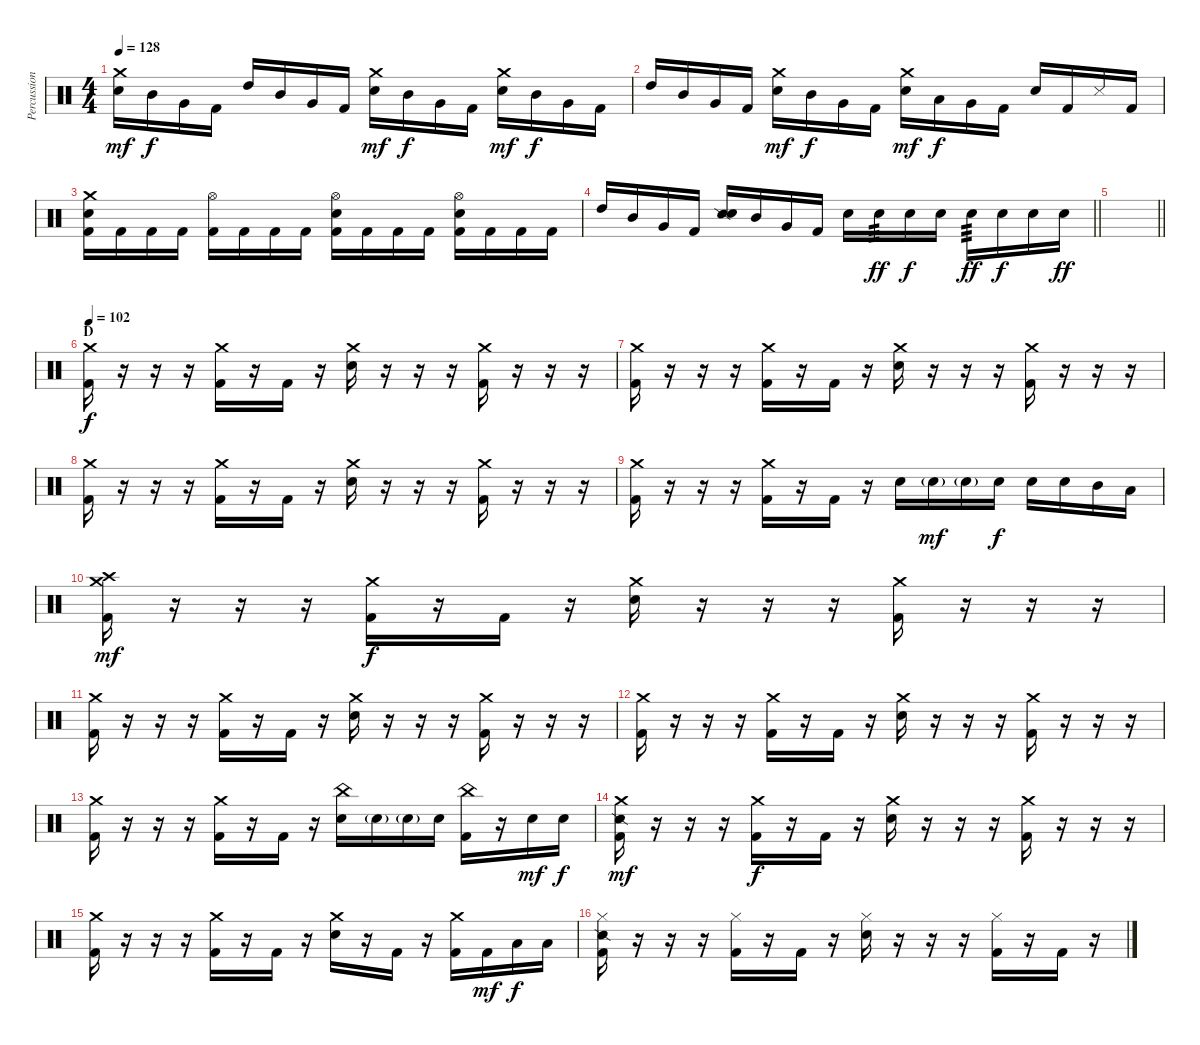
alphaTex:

\track ("Percussion" "Percussion") {instrument percussion}
\staff {score}
\articulation defaults
\ts (4 4)
\tempo 128
\clef neutral
\ks c
("Crash medium (hit)" "Snare (hit) 2").16{dy mf} "Mid Tom (hit)".16{dy f} "Very Low Tom (hit)".16 "Kick (hit) 2".16 "High Tom (hit)".16 "Mid Tom (hit)".16 "Very Low Tom (hit)".16 "Kick (hit) 2".16 ("Crash medium (hit)" "Snare (hit) 2").16{dy mf} "Mid Tom (hit)".16{dy f} "Very Low Tom (hit)".16 "Kick (hit) 2".16 ("Crash medium (hit)" "Snare (hit) 2").16{dy mf} "Mid Tom (hit)".16{dy f} "Very Low Tom (hit)".16 "Kick (hit) 2".16 |
"High Tom (hit)".16 "Mid Tom (hit)".16 "Very Low Tom (hit)".16 "Kick (hit) 2".16 ("Crash medium (hit)" "Snare (hit) 2").16{dy mf} "Mid Tom (hit)".16{dy f} "Very Low Tom (hit)".16 "Kick (hit) 2".16 ("Crash medium (hit)" "Snare (hit) 2").16{dy mf} "Low Tom (hit)".16{dy f} "Very Low Tom (hit)".16 "Kick (hit) 2".16 "Snare (hit) 2".16 "Kick (hit) 2".16 "Metronome (hit)".16 "Kick (hit) 2".16 |
("Crash medium (hit)" "Snare (hit) 2" "Kick (hit) 2").16 "Kick (hit) 2".16 "Kick (hit) 2".16 "Kick (hit) 2".16 ("Hi-Hat (open)" "Kick (hit) 2").16 "Kick (hit) 2".16 "Kick (hit) 2".16 "Kick (hit) 2".16 ("Hi-Hat (open)" "Snare (hit) 2" "Kick (hit) 2").16 "Kick (hit) 2".16 "Kick (hit) 2".16 "Kick (hit) 2".16 ("Hi-Hat (open)" "Snare (hit) 2" "Kick (hit) 2").16 "Kick (hit) 2".16 "Kick (hit) 2".16 "Kick (hit) 2".16 |
\barLineRight lightlight "High Tom (hit)".16 "Mid Tom (hit)".16 "Very Low Tom (hit)".16 "Kick (hit) 2".16
("Snare (side stick) 2" "Snare (hit) 2").16 "Mid Tom (hit)".16 "Very Low Tom (hit)".16 "Kick (hit) 2".16 "Snare (hit) 2".16 "Snare (hit) 2".16{tp 3 dy ff} "Snare (hit) 2".16{dy f} "Snare (hit) 2".16 "Snare (hit) 2".16{tp 3 dy ff} "Snare (hit) 2".16{dy f} "Snare (hit) 2".16 "Snare (hit) 2".16{dy ff} |
\barLineRight lightlight
|
\section ("" "D")
\tempo 102
("Crash medium (hit)" "Kick (hit) 2").16{dy f} r.16 r.16 r.16 ("Crash medium (hit)" "Kick (hit) 2").16 r.16 "Kick (hit) 2".16 r.16 ("Crash medium (hit)" "Snare (hit) 2").16 r.16 r.16 r.16 ("Crash medium (hit)" "Kick (hit) 2").16 r.16 r.16 r.16 |
("Crash medium (hit)" "Kick (hit) 2").16 r.16 r.16 r.16 ("Crash medium (hit)" "Kick (hit) 2").16 r.16 "Kick (hit) 2".16 r.16 ("Crash medium (hit)" "Snare (hit) 2").16 r.16 r.16 r.16 ("Crash medium (hit)" "Kick (hit) 2").16 r.16 r.16 r.16 |
("Crash medium (hit)" "Kick (hit) 2").16 r.16 r.16 r.16 ("Crash medium (hit)" "Kick (hit) 2").16 r.16 "Kick (hit) 2".16 r.16 ("Crash medium (hit)" "Snare (hit) 2").16 r.16 r.16 r.16 ("Crash medium (hit)" "Kick (hit) 2").16 r.16 r.16 r.16 |
("Crash medium (hit)" "Kick (hit) 2").16 r.16 r.16 r.16 ("Crash medium (hit)" "Kick (hit) 2").16 r.16 "Kick (hit) 2".16 r.16 "Snare (hit) 2".16 "Snare (hit) 2"{g}.16{dy mf} "Snare (hit) 2"{g}.16 "Snare (hit) 2".16{dy f} "Snare (hit) 2".16 "Snare (hit) 2".16 "Mid Tom (hit)".16 "Low Tom (hit)".16 |
("Crash medium (hit)" "Crash high (hit)" "Kick (hit) 2").16{dy mf} r.16 r.16 r.16 ("Crash medium (hit)" "Kick (hit) 2").16{dy f} r.16 "Kick (hit) 2".16 r.16 ("Crash medium (hit)" "Snare (hit) 2").16 r.16 r.16 r.16 ("Crash medium (hit)" "Kick (hit) 2").16 r.16 r.16 r.16 |
("Crash medium (hit)" "Kick (hit) 2").16 r.16 r.16 r.16 ("Crash medium (hit)" "Kick (hit) 2").16 r.16 "Kick (hit) 2".16 r.16 ("Crash medium (hit)" "Snare (hit) 2").16 r.16 r.16 r.16 ("Crash medium (hit)" "Kick (hit) 2").16 r.16 r.16 r.16 |
("Crash medium (hit)" "Kick (hit) 2").16 r.16 r.16 r.16 ("Crash medium (hit)" "Kick (hit) 2").16 r.16 "Kick (hit) 2".16 r.16 ("Crash medium (hit)" "Snare (hit) 2").16 r.16 r.16 r.16 ("Crash medium (hit)" "Kick (hit) 2").16 r.16 r.16 r.16 |
("Crash medium (hit)" "Kick (hit) 2").16 r.16 r.16 r.16 ("Crash medium (hit)" "Kick (hit) 2").16 r.16 "Kick (hit) 2".16 r.16 ("China (hit)" "Snare (hit) 2").16 "Snare (hit) 2"{g}.16 "Snare (hit) 2"{g}.16 "Snare (hit) 2".16 ("China (hit)" "Kick (hit) 2").16 r.16 "Snare (hit) 2".16{dy mf} "Snare (hit) 2".16{dy f} |
("Crash medium (hit)" "Snare (side stick) 2" "Kick (hit) 2").16{dy mf} r.16 r.16 r.16 ("Crash medium (hit)" "Kick (hit) 2").16{dy f} r.16 "Kick (hit) 2".16 r.16 ("Crash medium (hit)" "Snare (hit) 2").16 r.16 r.16 r.16 ("Crash medium (hit)" "Kick (hit) 2").16 r.16 r.16 r.16 |
("Crash medium (hit)" "Kick (hit) 2").16 r.16 r.16 r.16 ("Crash medium (hit)" "Kick (hit) 2").16 r.16 "Kick (hit) 2".16 r.16 ("Crash medium (hit)" "Snare (hit) 2").16 r.16 "Kick (hit) 2".16 r.16 ("Crash medium (hit)" "Kick (hit) 2").16 "Kick (hit) 2".16{dy mf} "Low Tom (hit)".16{dy f} "Low Tom (hit)".16 |
("Hi-Hat (closed)" "Snare (side stick) 2" "Kick (hit) 2").16 r.16 r.16 r.16 ("Hi-Hat (closed)" "Kick (hit) 2").16 r.16 "Kick (hit) 2".16 r.16 ("Hi-Hat (closed)" "Snare (hit) 2").16 r.16 r.16 r.16 ("Hi-Hat (closed)" "Kick (hit) 2").16 r.16 "Kick (hit) 2".16 r.16
